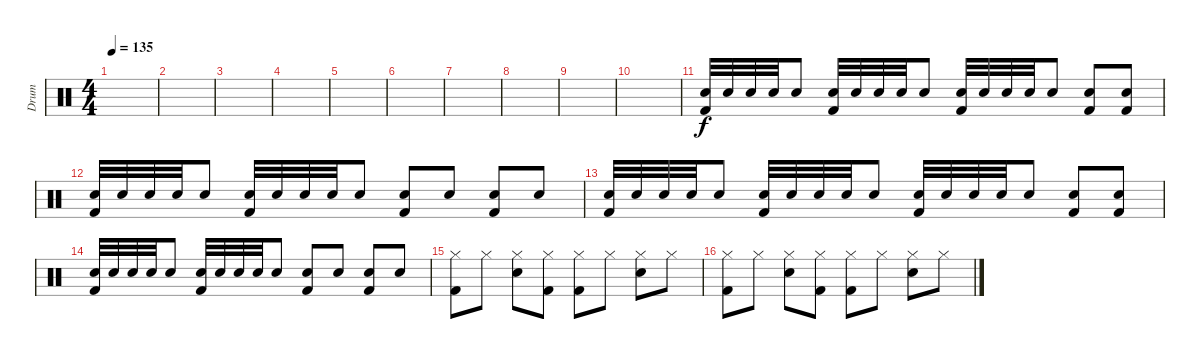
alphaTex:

\track ("Drum" "Drum") {instrument percussion}
\staff {score}
\articulation defaults
\ts (4 4)
\tempo 135
\clef neutral
\ks c
|
|
|
|
|
|
|
|
|
|
("Kick (hit) 2" "Electric Snare (hit)").32 "Electric Snare (hit)".32 "Electric Snare (hit)".32 "Electric Snare (hit)".32 "Electric Snare (hit)".8 ("Kick (hit) 2" "Electric Snare (hit)").32 "Electric Snare (hit)".32 "Electric Snare (hit)".32 "Electric Snare (hit)".32 "Electric Snare (hit)".8 ("Kick (hit) 2" "Electric Snare (hit)").32 "Electric Snare (hit)".32 "Electric Snare (hit)".32 "Electric Snare (hit)".32 "Electric Snare (hit)".8 ("Kick (hit) 2" "Electric Snare (hit)").8 ("Kick (hit) 2" "Electric Snare (hit)").8 |
("Kick (hit) 2" "Electric Snare (hit)").32 "Electric Snare (hit)".32 "Electric Snare (hit)".32 "Electric Snare (hit)".32 "Electric Snare (hit)".8 ("Kick (hit) 2" "Electric Snare (hit)").32 "Electric Snare (hit)".32 "Electric Snare (hit)".32 "Electric Snare (hit)".32 "Electric Snare (hit)".8 ("Kick (hit) 2" "Electric Snare (hit)").8 "Electric Snare (hit)".8 ("Kick (hit) 2" "Electric Snare (hit)").8 "Electric Snare (hit)".8 |
("Kick (hit) 2" "Electric Snare (hit)").32 "Electric Snare (hit)".32 "Electric Snare (hit)".32 "Electric Snare (hit)".32 "Electric Snare (hit)".8 ("Kick (hit) 2" "Electric Snare (hit)").32 "Electric Snare (hit)".32 "Electric Snare (hit)".32 "Electric Snare (hit)".32 "Electric Snare (hit)".8 ("Kick (hit) 2" "Electric Snare (hit)").32 "Electric Snare (hit)".32 "Electric Snare (hit)".32 "Electric Snare (hit)".32 "Electric Snare (hit)".8 ("Kick (hit) 2" "Electric Snare (hit)").8 ("Kick (hit) 2" "Electric Snare (hit)").8 |
("Kick (hit) 2" "Electric Snare (hit)").32 "Electric Snare (hit)".32 "Electric Snare (hit)".32 "Electric Snare (hit)".32 "Electric Snare (hit)".8 ("Kick (hit) 2" "Electric Snare (hit)").32 "Electric Snare (hit)".32 "Electric Snare (hit)".32 "Electric Snare (hit)".32 "Electric Snare (hit)".8 ("Kick (hit) 2" "Electric Snare (hit)").8 "Electric Snare (hit)".8 ("Kick (hit) 2" "Electric Snare (hit)").8 "Electric Snare (hit)".8 |
("Hi-Hat (closed)" "Kick (hit) 2").8 "Hi-Hat (closed)".8 ("Electric Snare (hit)" "Hi-Hat (closed)").8 ("Kick (hit) 2" "Hi-Hat (closed)").8 ("Kick (hit) 2" "Hi-Hat (closed)").8 "Hi-Hat (closed)".8 ("Electric Snare (hit)" "Hi-Hat (closed)").8 "Hi-Hat (closed)".8 |
("Hi-Hat (closed)" "Kick (hit) 2").8 "Hi-Hat (closed)".8 ("Hi-Hat (closed)" "Electric Snare (hit)").8 ("Hi-Hat (closed)" "Kick (hit) 2").8 ("Hi-Hat (closed)" "Kick (hit) 2").8 "Hi-Hat (closed)".8 ("Electric Snare (hit)" "Hi-Hat (closed)").8 "Hi-Hat (closed)".8
